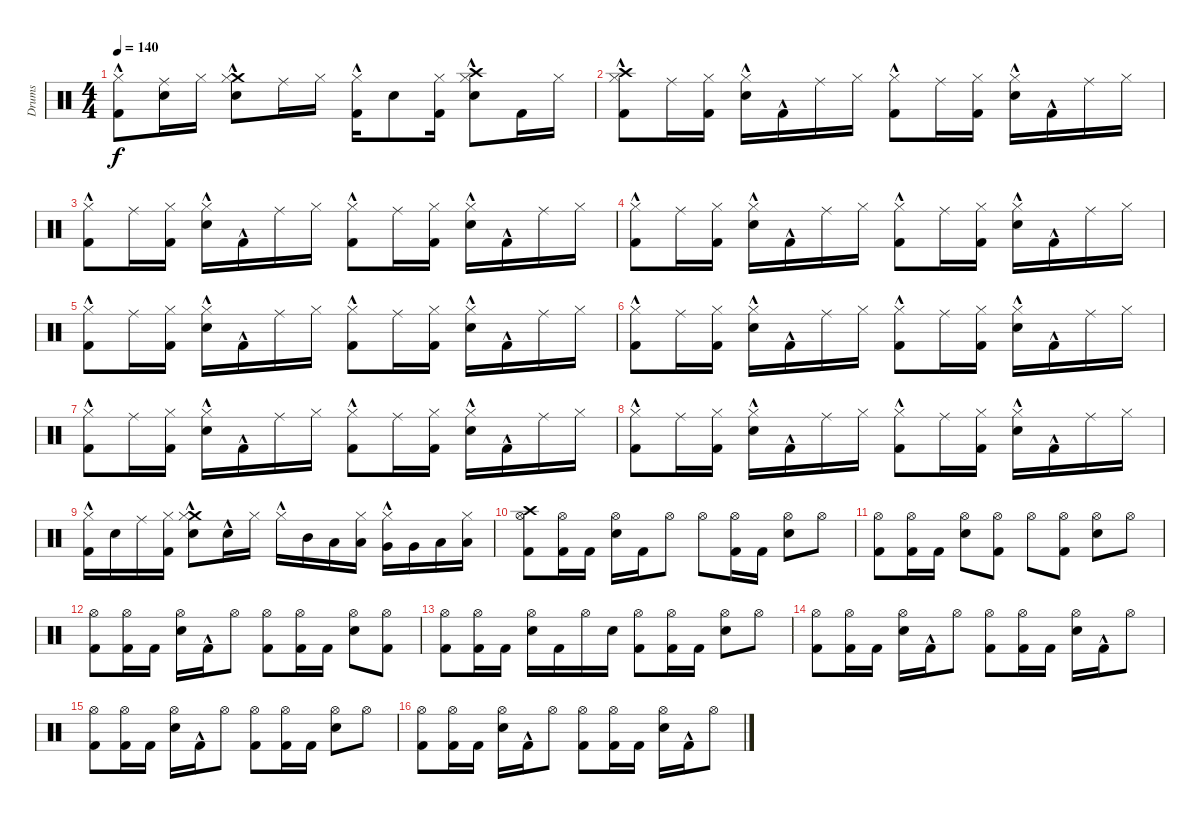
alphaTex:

\track ("Drums" "Drums") {instrument percussion}
\staff {score}
\articulation defaults
\ts (4 4)
\tempo 140
\clef neutral
\ks c
("Hi-Hat (closed)"{hac} "Kick (hit) 2").8{dy f} ("Ride (middle)" "Electric Snare (hit)").16 "Hi-Hat (closed)".16 ("Crash medium (hit)" "Electric Snare (hit)" "Hi-Hat (closed)"{hac}).8 "Ride (middle)".16 "Hi-Hat (closed)".16 ("Kick (hit) 2" "Hi-Hat (closed)"{hac}).16 "Electric Snare (hit)".8 ("Hi-Hat (closed)" "Kick (hit) 2").16 ("Hi-Hat (closed)"{hac} "Crash high (hit)" "Electric Snare (hit)").8 "Kick (hit) 2".16 "Hi-Hat (closed)".16 |
("Hi-Hat (closed)"{hac} "Crash high (hit)" "Kick (hit) 2"{hac}).8 "Ride (middle)".16 ("Hi-Hat (closed)" "Kick (hit) 2").16 ("Electric Snare (hit)" "Hi-Hat (closed)"{hac}).16 "Kick (hit) 2"{hac}.16 "Ride (middle)".16 "Hi-Hat (closed)".16 ("Kick (hit) 2"{hac} "Hi-Hat (closed)"{hac}).8 "Ride (middle)".16 ("Kick (hit) 2" "Hi-Hat (closed)").16 ("Electric Snare (hit)" "Hi-Hat (closed)"{hac}).16 "Kick (hit) 2"{hac}.16 "Ride (middle)".16 "Hi-Hat (closed)".16 |
("Kick (hit) 2"{hac} "Hi-Hat (closed)"{hac}).8 "Ride (middle)".16 ("Hi-Hat (closed)" "Kick (hit) 2").16 ("Hi-Hat (closed)"{hac} "Electric Snare (hit)").16 "Kick (hit) 2"{hac}.16 "Ride (middle)".16 "Hi-Hat (closed)".16 ("Hi-Hat (closed)"{hac} "Kick (hit) 2"{hac}).8 "Ride (middle)".16 ("Kick (hit) 2" "Hi-Hat (closed)").16 ("Hi-Hat (closed)"{hac} "Electric Snare (hit)").16 "Kick (hit) 2"{hac}.16 "Ride (middle)".16 "Hi-Hat (closed)".16 |
("Kick (hit) 2"{hac} "Hi-Hat (closed)"{hac}).8 "Ride (middle)".16 ("Hi-Hat (closed)" "Kick (hit) 2").16 ("Electric Snare (hit)" "Hi-Hat (closed)"{hac}).16 "Kick (hit) 2"{hac}.16 "Ride (middle)".16 "Hi-Hat (closed)".16 ("Kick (hit) 2"{hac} "Hi-Hat (closed)"{hac}).8 "Ride (middle)".16 ("Hi-Hat (closed)" "Kick (hit) 2").16 ("Electric Snare (hit)" "Hi-Hat (closed)"{hac}).16 "Kick (hit) 2"{hac}.16 "Ride (middle)".16 "Hi-Hat (closed)".16 |
("Hi-Hat (closed)"{hac} "Kick (hit) 2"{hac}).8 "Ride (middle)".16 ("Hi-Hat (closed)" "Kick (hit) 2").16 ("Electric Snare (hit)" "Hi-Hat (closed)"{hac}).16 "Kick (hit) 2"{hac}.16 "Ride (middle)".16 "Hi-Hat (closed)".16 ("Hi-Hat (closed)"{hac} "Kick (hit) 2"{hac}).8 "Ride (middle)".16 ("Hi-Hat (closed)" "Kick (hit) 2").16 ("Electric Snare (hit)" "Hi-Hat (closed)"{hac}).16 "Kick (hit) 2"{hac}.16 "Ride (middle)".16 "Hi-Hat (closed)".16 |
("Kick (hit) 2"{hac} "Hi-Hat (closed)"{hac}).8 "Ride (middle)".16 ("Kick (hit) 2" "Hi-Hat (closed)").16 ("Electric Snare (hit)" "Hi-Hat (closed)"{hac}).16 "Kick (hit) 2"{hac}.16 "Ride (middle)".16 "Hi-Hat (closed)".16 ("Hi-Hat (closed)"{hac} "Kick (hit) 2"{hac}).8 "Ride (middle)".16 ("Kick (hit) 2" "Hi-Hat (closed)").16 ("Hi-Hat (closed)"{hac} "Electric Snare (hit)").16 "Kick (hit) 2"{hac}.16 "Ride (middle)".16 "Hi-Hat (closed)".16 |
("Hi-Hat (closed)"{hac} "Kick (hit) 2"{hac}).8 "Ride (middle)".16 ("Hi-Hat (closed)" "Kick (hit) 2").16 ("Electric Snare (hit)" "Hi-Hat (closed)"{hac}).16 "Kick (hit) 2"{hac}.16 "Ride (middle)".16 "Hi-Hat (closed)".16 ("Kick (hit) 2"{hac} "Hi-Hat (closed)"{hac}).8 "Ride (middle)".16 ("Hi-Hat (closed)" "Kick (hit) 2").16 ("Electric Snare (hit)" "Hi-Hat (closed)"{hac}).16 "Kick (hit) 2"{hac}.16 "Ride (middle)".16 "Hi-Hat (closed)".16 |
("Kick (hit) 2"{hac} "Hi-Hat (closed)"{hac}).8 "Ride (middle)".16 ("Hi-Hat (closed)" "Kick (hit) 2").16 ("Hi-Hat (closed)"{hac} "Electric Snare (hit)").16 "Kick (hit) 2"{hac}.16 "Ride (middle)".16 "Hi-Hat (closed)".16 ("Kick (hit) 2"{hac} "Hi-Hat (closed)"{hac}).8 "Ride (middle)".16 ("Kick (hit) 2" "Hi-Hat (closed)").16 ("Electric Snare (hit)" "Hi-Hat (closed)"{hac}).16 "Kick (hit) 2"{hac}.16 "Ride (middle)".16 "Hi-Hat (closed)".16 |
("Hi-Hat (closed)"{hac} "Kick (hit) 2").16 "Electric Snare (hit)".16 "Ride (middle)".16 ("Kick (hit) 2" "Hi-Hat (closed)").16 ("Crash medium (hit)" "Electric Snare (hit)" "Hi-Hat (closed)"{hac}).8 "Electric Snare (hit)"{hac}.16 "Hi-Hat (closed)".16 "Hi-Hat (closed)"{hac}.16 "Mid Tom (hit)".16 "Low Tom (hit)".16 ("Low Tom (hit)" "Hi-Hat (closed)").16 ("Very Low Tom (hit)" "Hi-Hat (closed)"{hac}).16 "Very Low Tom (hit)".16 "Low Floor Tom (hit)".16 ("Low Floor Tom (hit)" "Hi-Hat (closed)").16 |
("Crash high (hit)" "Hi-Hat (open)" "Kick (hit) 2").8 ("Hi-Hat (open)" "Kick (hit) 2").16 "Kick (hit) 2".16 ("Electric Snare (hit)" "Hi-Hat (open)").16 "Kick (hit) 2".16 "Hi-Hat (open)".8 "Hi-Hat (open)".8 ("Kick (hit) 2" "Hi-Hat (open)").16 "Kick (hit) 2".16 ("Electric Snare (hit)" "Hi-Hat (open)").8 "Hi-Hat (open)".8 |
("Hi-Hat (open)" "Kick (hit) 2").8 ("Kick (hit) 2" "Hi-Hat (open)").16 "Kick (hit) 2".16 ("Electric Snare (hit)" "Hi-Hat (open)").8 ("Kick (hit) 2" "Hi-Hat (open)").8 "Hi-Hat (open)".8 ("Kick (hit) 2" "Hi-Hat (open)").8 ("Hi-Hat (open)" "Electric Snare (hit)").8 "Hi-Hat (open)".8 |
("Kick (hit) 2" "Hi-Hat (open)").8 ("Hi-Hat (open)" "Kick (hit) 2").16 "Kick (hit) 2".16 ("Electric Snare (hit)" "Hi-Hat (open)").16 "Kick (hit) 2"{hac}.16 "Hi-Hat (open)".8 ("Kick (hit) 2" "Hi-Hat (open)").8 ("Hi-Hat (open)" "Kick (hit) 2").16 "Kick (hit) 2".16 ("Electric Snare (hit)" "Hi-Hat (open)").8 ("Kick (hit) 2" "Hi-Hat (open)").8 |
("Hi-Hat (open)" "Kick (hit) 2").8 ("Kick (hit) 2" "Hi-Hat (open)").16 "Kick (hit) 2".16 ("Electric Snare (hit)" "Hi-Hat (open)").16 "Kick (hit) 2".16 "Hi-Hat (open)".16 "Electric Snare (hit)".16 ("Kick (hit) 2" "Hi-Hat (open)").8 ("Kick (hit) 2" "Hi-Hat (open)").16 "Kick (hit) 2".16 ("Electric Snare (hit)" "Hi-Hat (open)").8 "Hi-Hat (open)".8 |
("Hi-Hat (open)" "Kick (hit) 2").8 ("Hi-Hat (open)" "Kick (hit) 2").16 "Kick (hit) 2".16 ("Electric Snare (hit)" "Hi-Hat (open)").16 "Kick (hit) 2"{hac}.16 "Hi-Hat (open)".8 ("Hi-Hat (open)" "Kick (hit) 2").8 ("Kick (hit) 2" "Hi-Hat (open)").16 "Kick (hit) 2".16 ("Hi-Hat (open)" "Electric Snare (hit)").16 "Kick (hit) 2"{hac}.16 "Hi-Hat (open)".8 |
("Hi-Hat (open)" "Kick (hit) 2").8 ("Kick (hit) 2" "Hi-Hat (open)").16 "Kick (hit) 2".16 ("Hi-Hat (open)" "Electric Snare (hit)").16 "Kick (hit) 2"{hac}.16 "Hi-Hat (open)".8 ("Hi-Hat (open)" "Kick (hit) 2").8 ("Hi-Hat (open)" "Kick (hit) 2").16 "Kick (hit) 2".16 ("Hi-Hat (open)" "Electric Snare (hit)").8 "Hi-Hat (open)".8 |
("Hi-Hat (open)" "Kick (hit) 2").8 ("Kick (hit) 2" "Hi-Hat (open)").16 "Kick (hit) 2".16 ("Hi-Hat (open)" "Electric Snare (hit)").16 "Kick (hit) 2"{hac}.16 "Hi-Hat (open)".8 ("Hi-Hat (open)" "Kick (hit) 2").8 ("Hi-Hat (open)" "Kick (hit) 2").16 "Kick (hit) 2".16 ("Hi-Hat (open)" "Electric Snare (hit)").16 "Kick (hit) 2"{hac}.16 "Hi-Hat (open)".8
